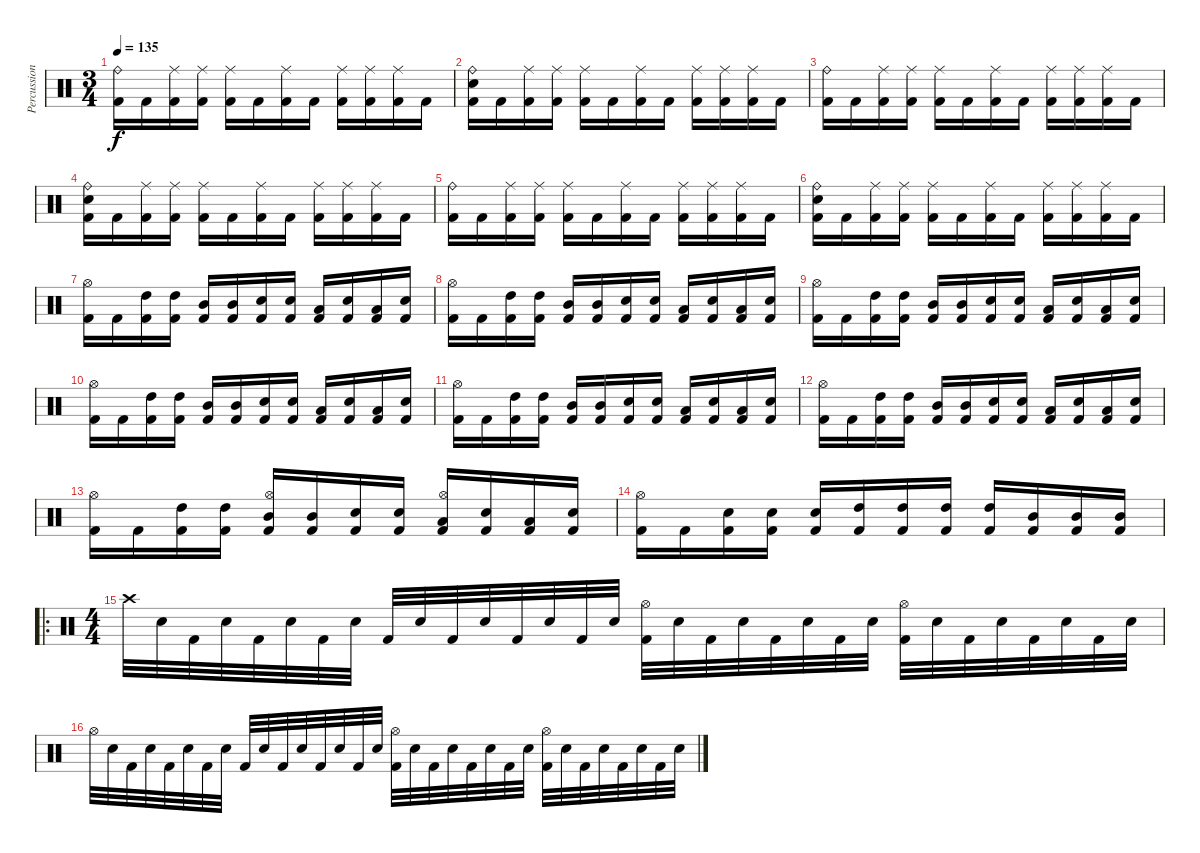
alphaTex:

\track ("Percussion" "Percussion") {instrument percussion}
\staff {score}
\articulation defaults
\ts (3 4)
\tempo 135
\clef neutral
\ks c
("Ride (bell)" "Kick (hit) 2").16{dy f} "Kick (hit) 2".16 ("Ride (middle)" "Kick (hit) 2").16 ("Ride (middle)" "Kick (hit) 2").16 ("Ride (middle)" "Kick (hit) 2").16 "Kick (hit) 2".16 ("Ride (middle)" "Kick (hit) 2").16 "Kick (hit) 2".16 ("Ride (middle)" "Kick (hit) 2").16 ("Ride (middle)" "Kick (hit) 2").16 ("Ride (middle)" "Kick (hit) 2").16 "Kick (hit) 2".16 |
("Ride (bell)" "Electric Snare (hit)" "Kick (hit) 2").16 "Kick (hit) 2".16 ("Ride (middle)" "Kick (hit) 2").16 ("Ride (middle)" "Kick (hit) 2").16 ("Ride (middle)" "Kick (hit) 2").16 "Kick (hit) 2".16 ("Ride (middle)" "Kick (hit) 2").16 "Kick (hit) 2".16 ("Ride (middle)" "Kick (hit) 2").16 ("Ride (middle)" "Kick (hit) 2").16 ("Ride (middle)" "Kick (hit) 2").16 "Kick (hit) 2".16 |
("Ride (bell)" "Kick (hit) 2").16 "Kick (hit) 2".16 ("Ride (middle)" "Kick (hit) 2").16 ("Ride (middle)" "Kick (hit) 2").16 ("Ride (middle)" "Kick (hit) 2").16 "Kick (hit) 2".16 ("Ride (middle)" "Kick (hit) 2").16 "Kick (hit) 2".16 ("Ride (middle)" "Kick (hit) 2").16 ("Ride (middle)" "Kick (hit) 2").16 ("Ride (middle)" "Kick (hit) 2").16 "Kick (hit) 2".16 |
("Ride (bell)" "Electric Snare (hit)" "Kick (hit) 2").16 "Kick (hit) 2".16 ("Ride (middle)" "Kick (hit) 2").16 ("Ride (middle)" "Kick (hit) 2").16 ("Ride (middle)" "Kick (hit) 2").16 "Kick (hit) 2".16 ("Ride (middle)" "Kick (hit) 2").16 "Kick (hit) 2".16 ("Ride (middle)" "Kick (hit) 2").16 ("Ride (middle)" "Kick (hit) 2").16 ("Ride (middle)" "Kick (hit) 2").16 "Kick (hit) 2".16 |
("Ride (bell)" "Kick (hit) 2").16 "Kick (hit) 2".16 ("Ride (middle)" "Kick (hit) 2").16 ("Ride (middle)" "Kick (hit) 2").16 ("Ride (middle)" "Kick (hit) 2").16 "Kick (hit) 2".16 ("Ride (middle)" "Kick (hit) 2").16 "Kick (hit) 2".16 ("Ride (middle)" "Kick (hit) 2").16 ("Ride (middle)" "Kick (hit) 2").16 ("Ride (middle)" "Kick (hit) 2").16 "Kick (hit) 2".16 |
("Ride (bell)" "Electric Snare (hit)" "Kick (hit) 2").16 "Kick (hit) 2".16 ("Ride (middle)" "Kick (hit) 2").16 ("Ride (middle)" "Kick (hit) 2").16 ("Ride (middle)" "Kick (hit) 2").16 "Kick (hit) 2".16 ("Ride (middle)" "Kick (hit) 2").16 "Kick (hit) 2".16 ("Ride (middle)" "Kick (hit) 2").16 ("Ride (middle)" "Kick (hit) 2").16 ("Ride (middle)" "Kick (hit) 2").16 "Kick (hit) 2".16 |
("Hi-Hat (open)" "Kick (hit) 2").16 "Kick (hit) 2".16 ("High Tom (hit)" "Kick (hit) 2").16 ("High Tom (hit)" "Kick (hit) 2").16 ("Mid Tom (hit)" "Kick (hit) 2").16 ("Mid Tom (hit)" "Kick (hit) 2").16 ("Electric Snare (hit)" "Kick (hit) 2").16 ("Electric Snare (hit)" "Kick (hit) 2").16 ("Low Tom (hit)" "Kick (hit) 2").16 ("Electric Snare (hit)" "Kick (hit) 2").16 ("Low Tom (hit)" "Kick (hit) 2").16 ("Electric Snare (hit)" "Kick (hit) 2").16 |
("Hi-Hat (open)" "Kick (hit) 2").16 "Kick (hit) 2".16 ("High Tom (hit)" "Kick (hit) 2").16 ("High Tom (hit)" "Kick (hit) 2").16 ("Mid Tom (hit)" "Kick (hit) 2").16 ("Mid Tom (hit)" "Kick (hit) 2").16 ("Electric Snare (hit)" "Kick (hit) 2").16 ("Electric Snare (hit)" "Kick (hit) 2").16 ("Low Tom (hit)" "Kick (hit) 2").16 ("Electric Snare (hit)" "Kick (hit) 2").16 ("Low Tom (hit)" "Kick (hit) 2").16 ("Electric Snare (hit)" "Kick (hit) 2").16 |
("Hi-Hat (open)" "Kick (hit) 2").16 "Kick (hit) 2".16 ("High Tom (hit)" "Kick (hit) 2").16 ("High Tom (hit)" "Kick (hit) 2").16 ("Mid Tom (hit)" "Kick (hit) 2").16 ("Mid Tom (hit)" "Kick (hit) 2").16 ("Electric Snare (hit)" "Kick (hit) 2").16 ("Electric Snare (hit)" "Kick (hit) 2").16 ("Low Tom (hit)" "Kick (hit) 2").16 ("Electric Snare (hit)" "Kick (hit) 2").16 ("Low Tom (hit)" "Kick (hit) 2").16 ("Electric Snare (hit)" "Kick (hit) 2").16 |
("Hi-Hat (open)" "Kick (hit) 2").16 "Kick (hit) 2".16 ("High Tom (hit)" "Kick (hit) 2").16 ("High Tom (hit)" "Kick (hit) 2").16 ("Mid Tom (hit)" "Kick (hit) 2").16 ("Mid Tom (hit)" "Kick (hit) 2").16 ("Electric Snare (hit)" "Kick (hit) 2").16 ("Electric Snare (hit)" "Kick (hit) 2").16 ("Low Tom (hit)" "Kick (hit) 2").16 ("Electric Snare (hit)" "Kick (hit) 2").16 ("Low Tom (hit)" "Kick (hit) 2").16 ("Electric Snare (hit)" "Kick (hit) 2").16 |
("Hi-Hat (open)" "Kick (hit) 2").16 "Kick (hit) 2".16 ("High Tom (hit)" "Kick (hit) 2").16 ("High Tom (hit)" "Kick (hit) 2").16 ("Mid Tom (hit)" "Kick (hit) 2").16 ("Mid Tom (hit)" "Kick (hit) 2").16 ("Electric Snare (hit)" "Kick (hit) 2").16 ("Electric Snare (hit)" "Kick (hit) 2").16 ("Low Tom (hit)" "Kick (hit) 2").16 ("Electric Snare (hit)" "Kick (hit) 2").16 ("Low Tom (hit)" "Kick (hit) 2").16 ("Electric Snare (hit)" "Kick (hit) 2").16 |
("Hi-Hat (open)" "Kick (hit) 2").16 "Kick (hit) 2".16 ("High Tom (hit)" "Kick (hit) 2").16 ("High Tom (hit)" "Kick (hit) 2").16 ("Mid Tom (hit)" "Kick (hit) 2").16 ("Mid Tom (hit)" "Kick (hit) 2").16 ("Electric Snare (hit)" "Kick (hit) 2").16 ("Electric Snare (hit)" "Kick (hit) 2").16 ("Low Tom (hit)" "Kick (hit) 2").16 ("Electric Snare (hit)" "Kick (hit) 2").16 ("Low Tom (hit)" "Kick (hit) 2").16 ("Electric Snare (hit)" "Kick (hit) 2").16 |
("Hi-Hat (open)" "Kick (hit) 2").16 "Kick (hit) 2".16 ("High Tom (hit)" "Kick (hit) 2").16 ("High Tom (hit)" "Kick (hit) 2").16 ("Hi-Hat (open)" "Mid Tom (hit)" "Kick (hit) 2").16 ("Mid Tom (hit)" "Kick (hit) 2").16 ("Electric Snare (hit)" "Kick (hit) 2").16 ("Electric Snare (hit)" "Kick (hit) 2").16 ("Hi-Hat (open)" "Low Tom (hit)" "Kick (hit) 2").16 ("Electric Snare (hit)" "Kick (hit) 2").16 ("Low Tom (hit)" "Kick (hit) 2").16 ("Electric Snare (hit)" "Kick (hit) 2").16 |
("Hi-Hat (open)" "Kick (hit) 2").16 "Kick (hit) 2".16 ("Electric Snare (hit)" "Kick (hit) 2").16 ("Electric Snare (hit)" "Kick (hit) 2").16 ("Electric Snare (hit)" "Kick (hit) 2").16 ("High Tom (hit)" "Kick (hit) 2").16 ("High Tom (hit)" "Kick (hit) 2").16 ("High Tom (hit)" "Kick (hit) 2").16 ("High Tom (hit)" "Kick (hit) 2").16 ("Mid Tom (hit)" "Kick (hit) 2").16 ("Mid Tom (hit)" "Kick (hit) 2").16 ("Mid Tom (hit)" "Kick (hit) 2").16 |
\ro
\ts (4 4)
"Crash high (hit)".32 "Electric Snare (hit)".32 "Kick (hit) 2".32 "Electric Snare (hit)".32 "Kick (hit) 2".32 "Electric Snare (hit)".32 "Kick (hit) 2".32 "Electric Snare (hit)".32 "Kick (hit) 2".32 "Electric Snare (hit)".32 "Kick (hit) 2".32 "Electric Snare (hit)".32 "Kick (hit) 2".32 "Electric Snare (hit)".32 "Kick (hit) 2".32 "Electric Snare (hit)".32 ("Hi-Hat (open)" "Kick (hit) 2").32 "Electric Snare (hit)".32 "Kick (hit) 2".32 "Electric Snare (hit)".32 "Kick (hit) 2".32 "Electric Snare (hit)".32 "Kick (hit) 2".32 "Electric Snare (hit)".32 ("Hi-Hat (open)" "Kick (hit) 2").32 "Electric Snare (hit)".32 "Kick (hit) 2".32 "Electric Snare (hit)".32 "Kick (hit) 2".32 "Electric Snare (hit)".32 "Kick (hit) 2".32 "Electric Snare (hit)".32 |
"Hi-Hat (open)".32 "Electric Snare (hit)".32 "Kick (hit) 2".32 "Electric Snare (hit)".32 "Kick (hit) 2".32 "Electric Snare (hit)".32 "Kick (hit) 2".32 "Electric Snare (hit)".32 "Kick (hit) 2".32 "Electric Snare (hit)".32 "Kick (hit) 2".32 "Electric Snare (hit)".32 "Kick (hit) 2".32 "Electric Snare (hit)".32 "Kick (hit) 2".32 "Electric Snare (hit)".32 ("Hi-Hat (open)" "Kick (hit) 2").32 "Electric Snare (hit)".32 "Kick (hit) 2".32 "Electric Snare (hit)".32 "Kick (hit) 2".32 "Electric Snare (hit)".32 "Kick (hit) 2".32 "Electric Snare (hit)".32 ("Hi-Hat (open)" "Kick (hit) 2").32 "Electric Snare (hit)".32 "Kick (hit) 2".32 "Electric Snare (hit)".32 "Kick (hit) 2".32 "Electric Snare (hit)".32 "Kick (hit) 2".32 "Electric Snare (hit)".32
